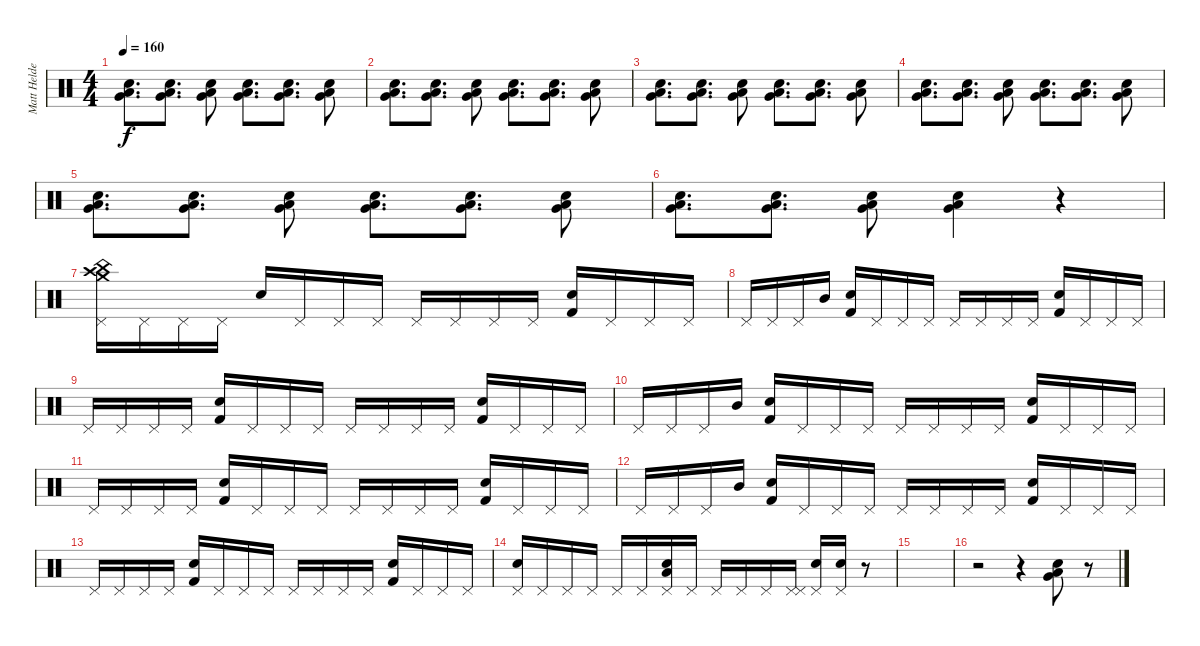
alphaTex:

\track ("Matt Helders" "Matt Helde") {instrument percussion}
\staff {score}
\articulation defaults
\ts (4 4)
\tempo 160
\clef neutral
\ks c
("Low Tom (hit)" "Very Low Tom (hit)" "Snare (hit) 2").8{d dy f} ("Low Tom (hit)" "Very Low Tom (hit)" "Snare (hit) 2").8{d} ("Low Tom (hit)" "Very Low Tom (hit)" "Snare (hit) 2").8 ("Low Tom (hit)" "Very Low Tom (hit)" "Snare (hit) 2").8{d} ("Low Tom (hit)" "Very Low Tom (hit)" "Snare (hit) 2").8{d} ("Low Tom (hit)" "Very Low Tom (hit)" "Snare (hit) 2").8 |
("Low Tom (hit)" "Very Low Tom (hit)" "Snare (hit) 2").8{d} ("Low Tom (hit)" "Very Low Tom (hit)" "Snare (hit) 2").8{d} ("Low Tom (hit)" "Very Low Tom (hit)" "Snare (hit) 2").8 ("Low Tom (hit)" "Very Low Tom (hit)" "Snare (hit) 2").8{d} ("Low Tom (hit)" "Very Low Tom (hit)" "Snare (hit) 2").8{d} ("Low Tom (hit)" "Very Low Tom (hit)" "Snare (hit) 2").8 |
("Low Tom (hit)" "Very Low Tom (hit)" "Snare (hit) 2").8{d} ("Low Tom (hit)" "Very Low Tom (hit)" "Snare (hit) 2").8{d} ("Low Tom (hit)" "Very Low Tom (hit)" "Snare (hit) 2").8 ("Low Tom (hit)" "Very Low Tom (hit)" "Snare (hit) 2").8{d} ("Low Tom (hit)" "Very Low Tom (hit)" "Snare (hit) 2").8{d} ("Low Tom (hit)" "Very Low Tom (hit)" "Snare (hit) 2").8 |
("Low Tom (hit)" "Very Low Tom (hit)" "Snare (hit) 2").8{d} ("Low Tom (hit)" "Very Low Tom (hit)" "Snare (hit) 2").8{d} ("Low Tom (hit)" "Very Low Tom (hit)" "Snare (hit) 2").8 ("Low Tom (hit)" "Very Low Tom (hit)" "Snare (hit) 2").8{d} ("Low Tom (hit)" "Very Low Tom (hit)" "Snare (hit) 2").8{d} ("Low Tom (hit)" "Very Low Tom (hit)" "Snare (hit) 2").8 |
("Low Tom (hit)" "Very Low Tom (hit)" "Snare (hit) 2").8{d} ("Low Tom (hit)" "Very Low Tom (hit)" "Snare (hit) 2").8{d} ("Low Tom (hit)" "Very Low Tom (hit)" "Snare (hit) 2").8 ("Low Tom (hit)" "Very Low Tom (hit)" "Snare (hit) 2").8{d} ("Low Tom (hit)" "Very Low Tom (hit)" "Snare (hit) 2").8{d} ("Low Tom (hit)" "Very Low Tom (hit)" "Snare (hit) 2").8 |
("Low Tom (hit)" "Very Low Tom (hit)" "Snare (hit) 2").8{d} ("Low Tom (hit)" "Very Low Tom (hit)" "Snare (hit) 2").8{d} ("Low Tom (hit)" "Very Low Tom (hit)" "Snare (hit) 2").8 ("Low Tom (hit)" "Very Low Tom (hit)" "Snare (hit) 2").4 r.4 |
("Pedal Hi-Hat (hit)" "Crash medium (hit)" "Crash high (hit)" "China (hit)").16 "Pedal Hi-Hat (hit)".16 "Pedal Hi-Hat (hit)".16 "Pedal Hi-Hat (hit)".16 "Snare (hit) 2".16 "Pedal Hi-Hat (hit)".16 "Pedal Hi-Hat (hit)".16 "Pedal Hi-Hat (hit)".16 "Pedal Hi-Hat (hit)".16 "Pedal Hi-Hat (hit)".16 "Pedal Hi-Hat (hit)".16 "Pedal Hi-Hat (hit)".16 ("Snare (hit) 2" "Kick (hit) 2").16 "Pedal Hi-Hat (hit)".16 "Pedal Hi-Hat (hit)".16 "Pedal Hi-Hat (hit)".16 |
"Pedal Hi-Hat (hit)".16 "Pedal Hi-Hat (hit)".16 "Pedal Hi-Hat (hit)".16 "Mid Tom (hit)".16 ("Snare (hit) 2" "Kick (hit) 2").16 "Pedal Hi-Hat (hit)".16 "Pedal Hi-Hat (hit)".16 "Pedal Hi-Hat (hit)".16 "Pedal Hi-Hat (hit)".16 "Pedal Hi-Hat (hit)".16 "Pedal Hi-Hat (hit)".16 "Pedal Hi-Hat (hit)".16 ("Snare (hit) 2" "Kick (hit) 2").16 "Pedal Hi-Hat (hit)".16 "Pedal Hi-Hat (hit)".16 "Pedal Hi-Hat (hit)".16 |
"Pedal Hi-Hat (hit)".16 "Pedal Hi-Hat (hit)".16 "Pedal Hi-Hat (hit)".16 "Pedal Hi-Hat (hit)".16 ("Snare (hit) 2" "Kick (hit) 2").16 "Pedal Hi-Hat (hit)".16 "Pedal Hi-Hat (hit)".16 "Pedal Hi-Hat (hit)".16 "Pedal Hi-Hat (hit)".16 "Pedal Hi-Hat (hit)".16 "Pedal Hi-Hat (hit)".16 "Pedal Hi-Hat (hit)".16 ("Snare (hit) 2" "Kick (hit) 2").16 "Pedal Hi-Hat (hit)".16 "Pedal Hi-Hat (hit)".16 "Pedal Hi-Hat (hit)".16 |
"Pedal Hi-Hat (hit)".16 "Pedal Hi-Hat (hit)".16 "Pedal Hi-Hat (hit)".16 "Mid Tom (hit)".16 ("Snare (hit) 2" "Kick (hit) 2").16 "Pedal Hi-Hat (hit)".16 "Pedal Hi-Hat (hit)".16 "Pedal Hi-Hat (hit)".16 "Pedal Hi-Hat (hit)".16 "Pedal Hi-Hat (hit)".16 "Pedal Hi-Hat (hit)".16 "Pedal Hi-Hat (hit)".16 ("Snare (hit) 2" "Kick (hit) 2").16 "Pedal Hi-Hat (hit)".16 "Pedal Hi-Hat (hit)".16 "Pedal Hi-Hat (hit)".16 |
"Pedal Hi-Hat (hit)".16 "Pedal Hi-Hat (hit)".16 "Pedal Hi-Hat (hit)".16 "Pedal Hi-Hat (hit)".16 ("Snare (hit) 2" "Kick (hit) 2").16 "Pedal Hi-Hat (hit)".16 "Pedal Hi-Hat (hit)".16 "Pedal Hi-Hat (hit)".16 "Pedal Hi-Hat (hit)".16 "Pedal Hi-Hat (hit)".16 "Pedal Hi-Hat (hit)".16 "Pedal Hi-Hat (hit)".16 ("Snare (hit) 2" "Kick (hit) 2").16 "Pedal Hi-Hat (hit)".16 "Pedal Hi-Hat (hit)".16 "Pedal Hi-Hat (hit)".16 |
"Pedal Hi-Hat (hit)".16 "Pedal Hi-Hat (hit)".16 "Pedal Hi-Hat (hit)".16 "Mid Tom (hit)".16 ("Snare (hit) 2" "Kick (hit) 2").16 "Pedal Hi-Hat (hit)".16 "Pedal Hi-Hat (hit)".16 "Pedal Hi-Hat (hit)".16 "Pedal Hi-Hat (hit)".16 "Pedal Hi-Hat (hit)".16 "Pedal Hi-Hat (hit)".16 "Pedal Hi-Hat (hit)".16 ("Snare (hit) 2" "Kick (hit) 2").16 "Pedal Hi-Hat (hit)".16 "Pedal Hi-Hat (hit)".16 "Pedal Hi-Hat (hit)".16 |
"Pedal Hi-Hat (hit)".16 "Pedal Hi-Hat (hit)".16 "Pedal Hi-Hat (hit)".16 "Pedal Hi-Hat (hit)".16 ("Snare (hit) 2" "Kick (hit) 2").16 "Pedal Hi-Hat (hit)".16 "Pedal Hi-Hat (hit)".16 "Pedal Hi-Hat (hit)".16 "Pedal Hi-Hat (hit)".16 "Pedal Hi-Hat (hit)".16 "Pedal Hi-Hat (hit)".16 "Pedal Hi-Hat (hit)".16 ("Snare (hit) 2" "Kick (hit) 2").16 "Pedal Hi-Hat (hit)".16 "Pedal Hi-Hat (hit)".16 "Pedal Hi-Hat (hit)".16 |
("Pedal Hi-Hat (hit)" "Snare (hit) 2").16 "Pedal Hi-Hat (hit)".16 "Pedal Hi-Hat (hit)".16 "Pedal Hi-Hat (hit)".16 "Pedal Hi-Hat (hit)".16 "Pedal Hi-Hat (hit)".16 ("Pedal Hi-Hat (hit)" "Low Tom (hit)" "Snare (hit) 2").16 "Pedal Hi-Hat (hit)".16 "Pedal Hi-Hat (hit)".16 "Pedal Hi-Hat (hit)".16 "Pedal Hi-Hat (hit)".16 ("Pedal Hi-Hat (hit)" "Pedal Hi-Hat (hit)").16 ("Pedal Hi-Hat (hit)" "Snare (hit) 2").16 ("Pedal Hi-Hat (hit)" "Snare (hit) 2").16 r.8 |
|
r.2 r.4 ("Snare (hit) 2" "Low Tom (hit)" "Very Low Tom (hit)").8 r.8
